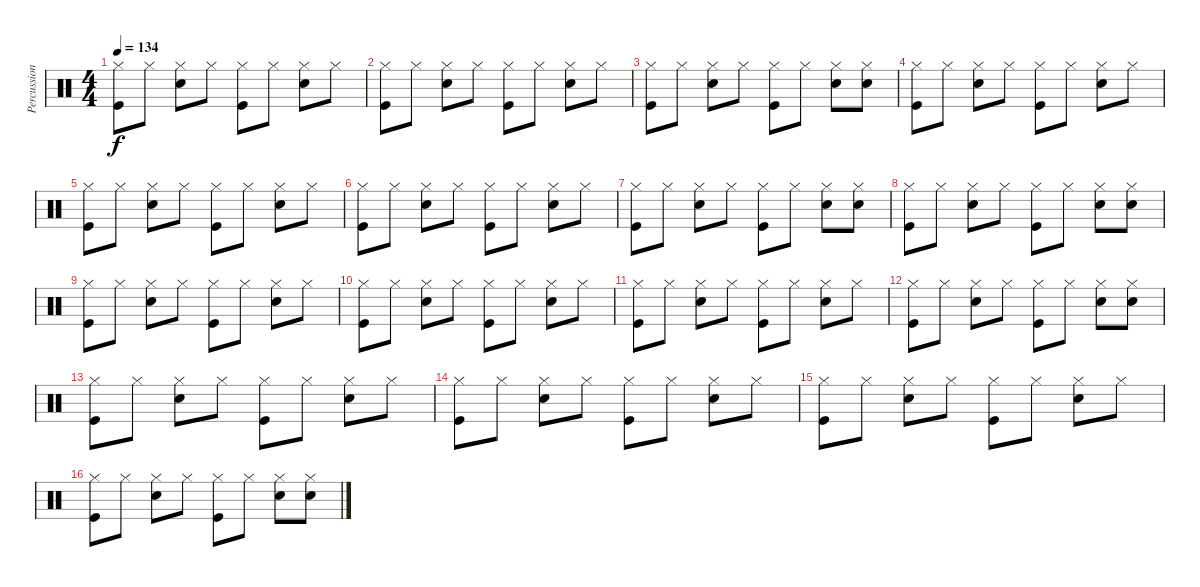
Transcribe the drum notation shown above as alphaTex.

\track ("Percussion" "Percussion") {instrument percussion}
\staff {score}
\articulation defaults
\ts (4 4)
\tempo 134
\clef neutral
\ks c
("Hi-Hat (closed)" "Kick (hit)").8{dy f} "Hi-Hat (closed)".8 ("Hi-Hat (closed)" "Snare (hit) 2").8 "Hi-Hat (closed)".8 ("Hi-Hat (closed)" "Kick (hit)").8 "Hi-Hat (closed)".8 ("Hi-Hat (closed)" "Snare (hit) 2").8 "Hi-Hat (closed)".8 |
("Hi-Hat (closed)" "Kick (hit)").8 "Hi-Hat (closed)".8 ("Hi-Hat (closed)" "Snare (hit) 2").8 "Hi-Hat (closed)".8 ("Hi-Hat (closed)" "Kick (hit)").8 "Hi-Hat (closed)".8 ("Hi-Hat (closed)" "Snare (hit) 2").8 "Hi-Hat (closed)".8 |
("Hi-Hat (closed)" "Kick (hit)").8 "Hi-Hat (closed)".8 ("Hi-Hat (closed)" "Snare (hit) 2").8 "Hi-Hat (closed)".8 ("Hi-Hat (closed)" "Kick (hit)").8 "Hi-Hat (closed)".8 ("Hi-Hat (closed)" "Snare (hit) 2").8 ("Hi-Hat (closed)" "Snare (hit) 2").8 |
("Hi-Hat (closed)" "Kick (hit)").8 "Hi-Hat (closed)".8 ("Hi-Hat (closed)" "Snare (hit) 2").8 "Hi-Hat (closed)".8 ("Hi-Hat (closed)" "Kick (hit)").8 "Hi-Hat (closed)".8 ("Hi-Hat (closed)" "Snare (hit) 2").8 "Hi-Hat (closed)".8 |
("Hi-Hat (closed)" "Kick (hit)").8 "Hi-Hat (closed)".8 ("Hi-Hat (closed)" "Snare (hit) 2").8 "Hi-Hat (closed)".8 ("Hi-Hat (closed)" "Kick (hit)").8 "Hi-Hat (closed)".8 ("Hi-Hat (closed)" "Snare (hit) 2").8 "Hi-Hat (closed)".8 |
("Hi-Hat (closed)" "Kick (hit)").8 "Hi-Hat (closed)".8 ("Hi-Hat (closed)" "Snare (hit) 2").8 "Hi-Hat (closed)".8 ("Hi-Hat (closed)" "Kick (hit)").8 "Hi-Hat (closed)".8 ("Hi-Hat (closed)" "Snare (hit) 2").8 "Hi-Hat (closed)".8 |
("Hi-Hat (closed)" "Kick (hit)").8 "Hi-Hat (closed)".8 ("Hi-Hat (closed)" "Snare (hit) 2").8 "Hi-Hat (closed)".8 ("Hi-Hat (closed)" "Kick (hit)").8 "Hi-Hat (closed)".8 ("Hi-Hat (closed)" "Snare (hit) 2").8 ("Hi-Hat (closed)" "Snare (hit) 2").8 |
("Hi-Hat (closed)" "Kick (hit)").8 "Hi-Hat (closed)".8 ("Hi-Hat (closed)" "Snare (hit) 2").8 "Hi-Hat (closed)".8 ("Hi-Hat (closed)" "Kick (hit)").8 "Hi-Hat (closed)".8 ("Hi-Hat (closed)" "Snare (hit) 2").8 ("Hi-Hat (closed)" "Snare (hit) 2").8 |
("Hi-Hat (closed)" "Kick (hit)").8 "Hi-Hat (closed)".8 ("Hi-Hat (closed)" "Snare (hit) 2").8 "Hi-Hat (closed)".8 ("Hi-Hat (closed)" "Kick (hit)").8 "Hi-Hat (closed)".8 ("Hi-Hat (closed)" "Snare (hit) 2").8 "Hi-Hat (closed)".8 |
("Hi-Hat (closed)" "Kick (hit)").8 "Hi-Hat (closed)".8 ("Hi-Hat (closed)" "Snare (hit) 2").8 "Hi-Hat (closed)".8 ("Hi-Hat (closed)" "Kick (hit)").8 "Hi-Hat (closed)".8 ("Hi-Hat (closed)" "Snare (hit) 2").8 "Hi-Hat (closed)".8 |
("Hi-Hat (closed)" "Kick (hit)").8 "Hi-Hat (closed)".8 ("Hi-Hat (closed)" "Snare (hit) 2").8 "Hi-Hat (closed)".8 ("Hi-Hat (closed)" "Kick (hit)").8 "Hi-Hat (closed)".8 ("Hi-Hat (closed)" "Snare (hit) 2").8 "Hi-Hat (closed)".8 |
("Hi-Hat (closed)" "Kick (hit)").8 "Hi-Hat (closed)".8 ("Hi-Hat (closed)" "Snare (hit) 2").8 "Hi-Hat (closed)".8 ("Hi-Hat (closed)" "Kick (hit)").8 "Hi-Hat (closed)".8 ("Hi-Hat (closed)" "Snare (hit) 2").8 ("Hi-Hat (closed)" "Snare (hit) 2").8 |
("Hi-Hat (closed)" "Kick (hit)").8 "Hi-Hat (closed)".8 ("Hi-Hat (closed)" "Snare (hit) 2").8 "Hi-Hat (closed)".8 ("Hi-Hat (closed)" "Kick (hit)").8 "Hi-Hat (closed)".8 ("Hi-Hat (closed)" "Snare (hit) 2").8 "Hi-Hat (closed)".8 |
("Hi-Hat (closed)" "Kick (hit)").8 "Hi-Hat (closed)".8 ("Hi-Hat (closed)" "Snare (hit) 2").8 "Hi-Hat (closed)".8 ("Hi-Hat (closed)" "Kick (hit)").8 "Hi-Hat (closed)".8 ("Hi-Hat (closed)" "Snare (hit) 2").8 "Hi-Hat (closed)".8 |
("Hi-Hat (closed)" "Kick (hit)").8 "Hi-Hat (closed)".8 ("Hi-Hat (closed)" "Snare (hit) 2").8 "Hi-Hat (closed)".8 ("Hi-Hat (closed)" "Kick (hit)").8 "Hi-Hat (closed)".8 ("Hi-Hat (closed)" "Snare (hit) 2").8 "Hi-Hat (closed)".8 |
("Hi-Hat (closed)" "Kick (hit)").8 "Hi-Hat (closed)".8 ("Hi-Hat (closed)" "Snare (hit) 2").8 "Hi-Hat (closed)".8 ("Hi-Hat (closed)" "Kick (hit)").8 "Hi-Hat (closed)".8 ("Hi-Hat (closed)" "Snare (hit) 2").8 ("Hi-Hat (closed)" "Snare (hit) 2").8
